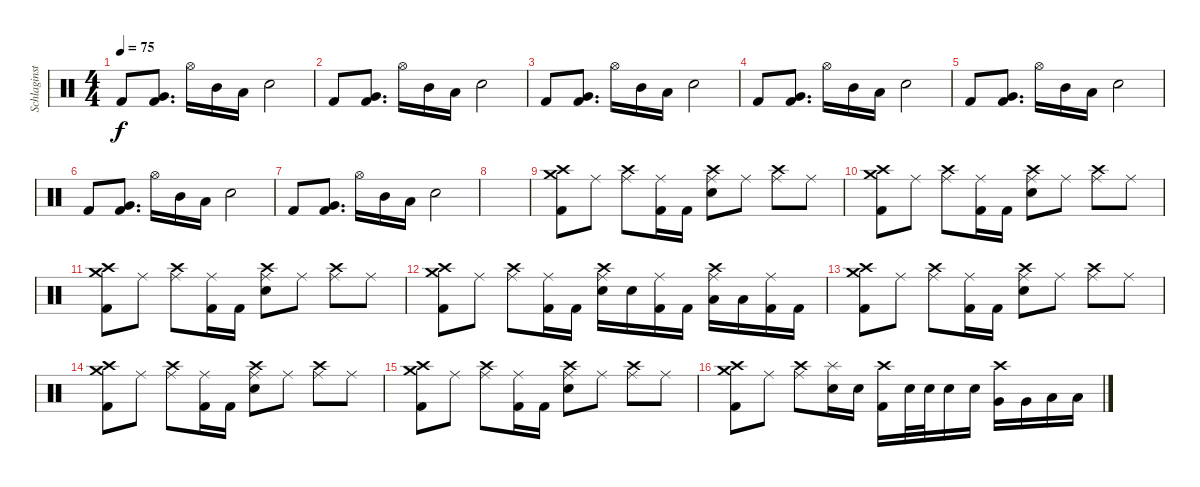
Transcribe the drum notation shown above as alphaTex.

\track ("Schlaginstrumente - Auswahl" "Schlaginst") {instrument percussion}
\staff {score}
\articulation defaults
\ts (4 4)
\tempo 75
\clef neutral
\ks c "Kick (hit) 2".8{dy f}
("Very Low Tom (hit)" "Kick (hit) 2").8{d} "Hi-Hat (open)".16 "Mid Tom (hit)".16 "Low Tom (hit)".16 "Electric Snare (hit)".2 |
"Kick (hit) 2".8 ("Very Low Tom (hit)" "Kick (hit) 2").8{d} "Hi-Hat (open)".16 "Mid Tom (hit)".16 "Low Tom (hit)".16 "Electric Snare (hit)".2 |
"Kick (hit) 2".8 ("Very Low Tom (hit)" "Kick (hit) 2").8{d} "Hi-Hat (open)".16 "Mid Tom (hit)".16 "Low Tom (hit)".16 "Electric Snare (hit)".2 |
"Kick (hit) 2".8 ("Very Low Tom (hit)" "Kick (hit) 2").8{d} "Hi-Hat (open)".16 "Mid Tom (hit)".16 "Low Tom (hit)".16 "Electric Snare (hit)".2 |
"Kick (hit) 2".8 ("Very Low Tom (hit)" "Kick (hit) 2").8{d} "Hi-Hat (open)".16 "Mid Tom (hit)".16 "Low Tom (hit)".16 "Electric Snare (hit)".2 |
"Kick (hit) 2".8 ("Very Low Tom (hit)" "Kick (hit) 2").8{d} "Hi-Hat (open)".16 "Mid Tom (hit)".16 "Low Tom (hit)".16 "Electric Snare (hit)".2 |
"Kick (hit) 2".8 ("Very Low Tom (hit)" "Kick (hit) 2").8{d} "Hi-Hat (open)".16 "Mid Tom (hit)".16 "Low Tom (hit)".16 "Electric Snare (hit)".2 |
|
("Crash high (hit)" "Crash medium (hit)" "Kick (hit) 2").8 "Ride (middle)".8 ("Crash high (hit)" "Ride (middle)").8 ("Ride (middle)" "Kick (hit) 2").16 "Kick (hit) 2".16 ("Crash high (hit)" "Ride (middle)" "Electric Snare (hit)").8 "Ride (middle)".8 ("Crash high (hit)" "Ride (middle)").8 "Ride (middle)".8 |
("Crash high (hit)" "Crash medium (hit)" "Kick (hit) 2").8 "Ride (middle)".8 ("Crash high (hit)" "Ride (middle)").8 ("Ride (middle)" "Kick (hit) 2").16 "Kick (hit) 2".16 ("Crash high (hit)" "Ride (middle)" "Electric Snare (hit)").8 "Ride (middle)".8 ("Crash high (hit)" "Ride (middle)").8 "Ride (middle)".8 |
("Crash high (hit)" "Crash medium (hit)" "Kick (hit) 2").8 "Ride (middle)".8 ("Crash high (hit)" "Ride (middle)").8 ("Ride (middle)" "Kick (hit) 2").16 "Kick (hit) 2".16 ("Crash high (hit)" "Ride (middle)" "Electric Snare (hit)").8 "Ride (middle)".8 ("Crash high (hit)" "Ride (middle)").8 "Ride (middle)".8 |
("Crash high (hit)" "Crash medium (hit)" "Kick (hit) 2").8 "Ride (middle)".8 ("Crash high (hit)" "Ride (middle)").8 ("Ride (middle)" "Kick (hit) 2").16 "Kick (hit) 2".16 ("Crash high (hit)" "Ride (middle)" "Electric Snare (hit)").16 "Electric Snare (hit)".16 ("Ride (middle)" "Kick (hit) 2").16 "Kick (hit) 2".16 ("Crash high (hit)" "Ride (middle)" "Low Tom (hit)").16 "Low Tom (hit)".16 ("Ride (middle)" "Kick (hit) 2").16 "Kick (hit) 2".16 |
("Crash high (hit)" "Crash medium (hit)" "Kick (hit) 2").8 "Ride (middle)".8 ("Crash high (hit)" "Ride (middle)").8 ("Ride (middle)" "Kick (hit) 2").16 "Kick (hit) 2".16 ("Crash high (hit)" "Ride (middle)" "Electric Snare (hit)").8 "Ride (middle)".8 ("Crash high (hit)" "Ride (middle)").8 "Ride (middle)".8 |
("Crash high (hit)" "Crash medium (hit)" "Kick (hit) 2").8 "Ride (middle)".8 ("Crash high (hit)" "Ride (middle)").8 ("Ride (middle)" "Kick (hit) 2").16 "Kick (hit) 2".16 ("Crash high (hit)" "Ride (middle)" "Electric Snare (hit)").8 "Ride (middle)".8 ("Crash high (hit)" "Ride (middle)").8 "Ride (middle)".8 |
("Crash high (hit)" "Crash medium (hit)" "Kick (hit) 2").8 "Ride (middle)".8 ("Crash high (hit)" "Ride (middle)").8 ("Ride (middle)" "Kick (hit) 2").16 "Kick (hit) 2".16 ("Crash high (hit)" "Ride (middle)" "Electric Snare (hit)").8 "Ride (middle)".8 ("Crash high (hit)" "Ride (middle)").8 "Ride (middle)".8 |
("Crash high (hit)" "Crash medium (hit)" "Kick (hit) 2").8 "Ride (middle)".8 ("Crash high (hit)" "Ride (middle)").8 ("Splash (hit)" "Electric Snare (hit)").16 "Electric Snare (hit)".16 ("Crash high (hit)" "Kick (hit) 2").16 "Electric Snare (hit)".32 "Electric Snare (hit)".32 "Electric Snare (hit)".16 "Electric Snare (hit)".16 ("Crash high (hit)" "Very Low Tom (hit)").16 "Very Low Tom (hit)".16 "Low Tom (hit)".16 "Low Tom (hit)".16
